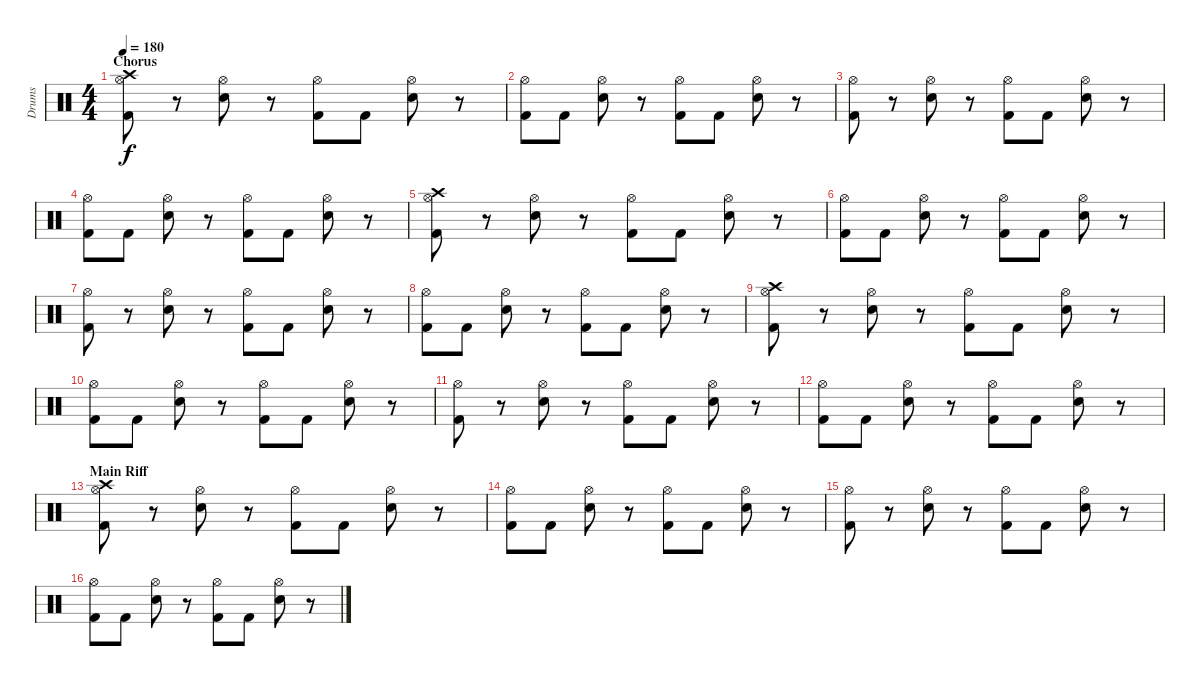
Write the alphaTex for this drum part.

\track ("Drums" "Drums") {instrument percussion}
\staff {score}
\articulation defaults
\ts (4 4)
\section ("" "Chorus")
\tempo 180
\clef neutral
\ks c
("Crash high (hit)" "Hi-Hat (open)" "Kick (hit) 2").8{dy f} r.8 ("Hi-Hat (open)" "Snare (hit) 2").8 r.8 ("Hi-Hat (open)" "Kick (hit) 2").8 "Kick (hit) 2".8 ("Hi-Hat (open)" "Snare (hit) 2").8 r.8 |
("Hi-Hat (open)" "Kick (hit) 2").8 "Kick (hit) 2".8 ("Hi-Hat (open)" "Snare (hit) 2").8 r.8 ("Hi-Hat (open)" "Kick (hit) 2").8 "Kick (hit) 2".8 ("Hi-Hat (open)" "Snare (hit) 2").8 r.8 |
("Hi-Hat (open)" "Kick (hit) 2").8 r.8 ("Hi-Hat (open)" "Snare (hit) 2").8 r.8 ("Hi-Hat (open)" "Kick (hit) 2").8 "Kick (hit) 2".8 ("Hi-Hat (open)" "Snare (hit) 2").8 r.8 |
("Hi-Hat (open)" "Kick (hit) 2").8 "Kick (hit) 2".8 ("Hi-Hat (open)" "Snare (hit) 2").8 r.8 ("Hi-Hat (open)" "Kick (hit) 2").8 "Kick (hit) 2".8 ("Hi-Hat (open)" "Snare (hit) 2").8 r.8 |
("Crash high (hit)" "Hi-Hat (open)" "Kick (hit) 2").8 r.8 ("Hi-Hat (open)" "Snare (hit) 2").8 r.8 ("Hi-Hat (open)" "Kick (hit) 2").8 "Kick (hit) 2".8 ("Hi-Hat (open)" "Snare (hit) 2").8 r.8 |
("Hi-Hat (open)" "Kick (hit) 2").8 "Kick (hit) 2".8 ("Hi-Hat (open)" "Snare (hit) 2").8 r.8 ("Hi-Hat (open)" "Kick (hit) 2").8 "Kick (hit) 2".8 ("Hi-Hat (open)" "Snare (hit) 2").8 r.8 |
("Hi-Hat (open)" "Kick (hit) 2").8 r.8 ("Hi-Hat (open)" "Snare (hit) 2").8 r.8 ("Hi-Hat (open)" "Kick (hit) 2").8 "Kick (hit) 2".8 ("Hi-Hat (open)" "Snare (hit) 2").8 r.8 |
("Hi-Hat (open)" "Kick (hit) 2").8 "Kick (hit) 2".8 ("Hi-Hat (open)" "Snare (hit) 2").8 r.8 ("Hi-Hat (open)" "Kick (hit) 2").8 "Kick (hit) 2".8 ("Hi-Hat (open)" "Snare (hit) 2").8 r.8 |
("Crash high (hit)" "Hi-Hat (open)" "Kick (hit) 2").8 r.8 ("Hi-Hat (open)" "Snare (hit) 2").8 r.8 ("Hi-Hat (open)" "Kick (hit) 2").8 "Kick (hit) 2".8 ("Hi-Hat (open)" "Snare (hit) 2").8 r.8 |
("Hi-Hat (open)" "Kick (hit) 2").8 "Kick (hit) 2".8 ("Hi-Hat (open)" "Snare (hit) 2").8 r.8 ("Hi-Hat (open)" "Kick (hit) 2").8 "Kick (hit) 2".8 ("Hi-Hat (open)" "Snare (hit) 2").8 r.8 |
("Hi-Hat (open)" "Kick (hit) 2").8 r.8 ("Hi-Hat (open)" "Snare (hit) 2").8 r.8 ("Hi-Hat (open)" "Kick (hit) 2").8 "Kick (hit) 2".8 ("Hi-Hat (open)" "Snare (hit) 2").8 r.8 |
("Hi-Hat (open)" "Kick (hit) 2").8 "Kick (hit) 2".8 ("Hi-Hat (open)" "Snare (hit) 2").8 r.8 ("Hi-Hat (open)" "Kick (hit) 2").8 "Kick (hit) 2".8 ("Hi-Hat (open)" "Snare (hit) 2").8 r.8 |
\section ("" "Main Riff")
("Crash high (hit)" "Hi-Hat (open)" "Kick (hit) 2").8 r.8 ("Hi-Hat (open)" "Snare (hit) 2").8 r.8 ("Hi-Hat (open)" "Kick (hit) 2").8 "Kick (hit) 2".8 ("Hi-Hat (open)" "Snare (hit) 2").8 r.8 |
("Hi-Hat (open)" "Kick (hit) 2").8 "Kick (hit) 2".8 ("Hi-Hat (open)" "Snare (hit) 2").8 r.8 ("Hi-Hat (open)" "Kick (hit) 2").8 "Kick (hit) 2".8 ("Hi-Hat (open)" "Snare (hit) 2").8 r.8 |
("Hi-Hat (open)" "Kick (hit) 2").8 r.8 ("Hi-Hat (open)" "Snare (hit) 2").8 r.8 ("Hi-Hat (open)" "Kick (hit) 2").8 "Kick (hit) 2".8 ("Hi-Hat (open)" "Snare (hit) 2").8 r.8 |
("Hi-Hat (open)" "Kick (hit) 2").8 "Kick (hit) 2".8 ("Hi-Hat (open)" "Snare (hit) 2").8 r.8 ("Hi-Hat (open)" "Kick (hit) 2").8 "Kick (hit) 2".8 ("Hi-Hat (open)" "Snare (hit) 2").8 r.8
